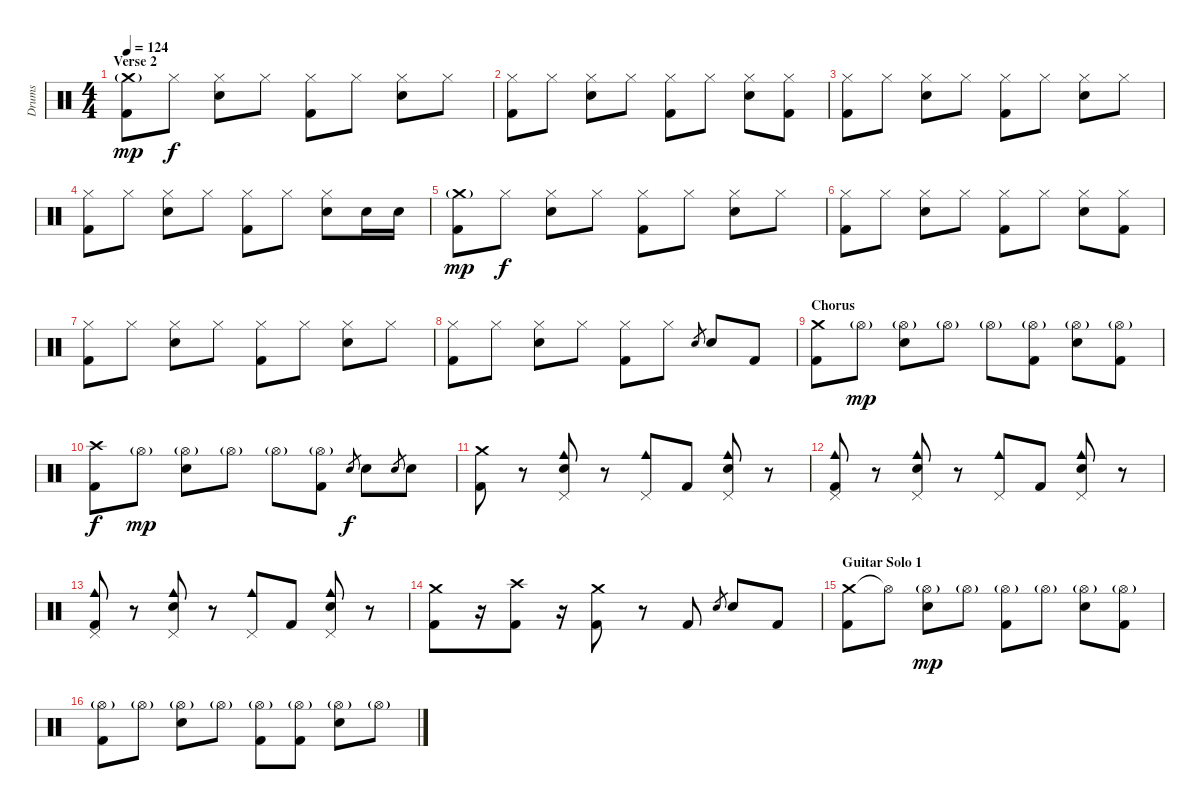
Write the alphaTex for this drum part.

\track ("Drums" "Drums") {instrument percussion}
\staff {score}
\articulation defaults
\ts (4 4)
\section ("" "Verse 2")
\tempo 124
\clef neutral
\ks c
("Crash medium (hit)"{g} "Kick (hit) 2").8{dy mp} "Hi-Hat (closed)".8{dy f} ("Hi-Hat (closed)" "Snare (hit) 2").8 "Hi-Hat (closed)".8 ("Hi-Hat (closed)" "Kick (hit) 2").8 "Hi-Hat (closed)".8 ("Hi-Hat (closed)" "Snare (hit) 2").8 "Hi-Hat (closed)".8 |
("Hi-Hat (closed)" "Kick (hit) 2").8 "Hi-Hat (closed)".8 ("Hi-Hat (closed)" "Snare (hit) 2").8 "Hi-Hat (closed)".8 ("Hi-Hat (closed)" "Kick (hit) 2").8 "Hi-Hat (closed)".8 ("Hi-Hat (closed)" "Snare (hit) 2").8 ("Hi-Hat (closed)" "Kick (hit) 2").8 |
("Hi-Hat (closed)" "Kick (hit) 2").8 "Hi-Hat (closed)".8 ("Hi-Hat (closed)" "Snare (hit) 2").8 "Hi-Hat (closed)".8 ("Hi-Hat (closed)" "Kick (hit) 2").8 "Hi-Hat (closed)".8 ("Hi-Hat (closed)" "Snare (hit) 2").8 "Hi-Hat (closed)".8 |
("Hi-Hat (closed)" "Kick (hit) 2").8 "Hi-Hat (closed)".8 ("Hi-Hat (closed)" "Snare (hit) 2").8 "Hi-Hat (closed)".8 ("Hi-Hat (closed)" "Kick (hit) 2").8 "Hi-Hat (closed)".8 ("Hi-Hat (closed)" "Snare (hit) 2").8 "Snare (hit) 2".16 "Snare (hit) 2".16 |
("Crash medium (hit)"{g} "Kick (hit) 2").8{dy mp} "Hi-Hat (closed)".8{dy f} ("Hi-Hat (closed)" "Snare (hit) 2").8 "Hi-Hat (closed)".8 ("Hi-Hat (closed)" "Kick (hit) 2").8 "Hi-Hat (closed)".8 ("Hi-Hat (closed)" "Snare (hit) 2").8 "Hi-Hat (closed)".8 |
("Hi-Hat (closed)" "Kick (hit) 2").8 "Hi-Hat (closed)".8 ("Hi-Hat (closed)" "Snare (hit) 2").8 "Hi-Hat (closed)".8 ("Hi-Hat (closed)" "Kick (hit) 2").8 "Hi-Hat (closed)".8 ("Hi-Hat (closed)" "Snare (hit) 2").8 ("Hi-Hat (closed)" "Kick (hit) 2").8 |
("Hi-Hat (closed)" "Kick (hit) 2").8 "Hi-Hat (closed)".8 ("Hi-Hat (closed)" "Snare (hit) 2").8 "Hi-Hat (closed)".8 ("Hi-Hat (closed)" "Kick (hit) 2").8 "Hi-Hat (closed)".8 ("Hi-Hat (closed)" "Snare (hit) 2").8 "Hi-Hat (closed)".8 |
("Hi-Hat (closed)" "Kick (hit) 2").8 "Hi-Hat (closed)".8 ("Hi-Hat (closed)" "Snare (hit) 2").8 "Hi-Hat (closed)".8 ("Hi-Hat (closed)" "Kick (hit) 2").8 "Hi-Hat (closed)".8 "Snare (hit) 2".8{gr} "Snare (hit) 2".8 "Kick (hit) 2".8 |
\section ("" "Chorus")
("Crash medium (hit)" "Kick (hit) 2").8 "Hi-Hat (open)"{g}.8{dy mp} ("Hi-Hat (open)"{g} "Snare (hit) 2").8 "Hi-Hat (open)"{g}.8 "Hi-Hat (open)"{g}.8 ("Hi-Hat (open)"{g} "Kick (hit) 2").8 ("Hi-Hat (open)"{g} "Snare (hit) 2").8 ("Hi-Hat (open)"{g} "Kick (hit) 2").8 |
("Crash high (hit)" "Kick (hit) 2").8{dy f} "Hi-Hat (open)"{g}.8{dy mp} ("Hi-Hat (open)"{g} "Snare (hit) 2").8 "Hi-Hat (open)"{g}.8 "Hi-Hat (open)"{g}.8 ("Hi-Hat (open)"{g} "Kick (hit) 2").8 "Snare (hit) 2".8{gr dy f} "Snare (hit) 2".8 "Snare (hit) 2".8{gr} "Snare (hit) 2".8 |
("Crash medium (hit)" "Kick (hit) 2").8 r.8 ("Cowbell medium (hit)" "Pedal Hi-Hat (hit)" "Snare (hit) 2").8 r.8 ("Cowbell medium (hit)" "Pedal Hi-Hat (hit)").8 "Kick (hit) 2".8 ("Cowbell medium (hit)" "Pedal Hi-Hat (hit)" "Snare (hit) 2").8 r.8 |
("Cowbell medium (hit)" "Pedal Hi-Hat (hit)" "Kick (hit) 2").8 r.8 ("Cowbell medium (hit)" "Pedal Hi-Hat (hit)" "Snare (hit) 2").8 r.8 ("Cowbell medium (hit)" "Pedal Hi-Hat (hit)").8 "Kick (hit) 2".8 ("Cowbell medium (hit)" "Pedal Hi-Hat (hit)" "Snare (hit) 2").8 r.8 |
("Cowbell medium (hit)" "Pedal Hi-Hat (hit)" "Kick (hit) 2").8 r.8 ("Cowbell medium (hit)" "Pedal Hi-Hat (hit)" "Snare (hit) 2").8 r.8 ("Cowbell medium (hit)" "Pedal Hi-Hat (hit)").8 "Kick (hit) 2".8 ("Cowbell medium (hit)" "Pedal Hi-Hat (hit)" "Snare (hit) 2").8 r.8 |
("Crash medium (hit)" "Kick (hit) 2").8 r.16 ("Crash high (hit)" "Kick (hit) 2").8 r.16 ("Crash medium (hit)" "Kick (hit) 2").8 r.8 "Kick (hit) 2".8 "Snare (hit) 2".8{gr} "Snare (hit) 2".8 "Kick (hit) 2".8 |
\section ("" "Guitar Solo 1")
("Crash medium (hit)" "Kick (hit) 2").8 "Hi-Hat (open)"{t}.8 ("Hi-Hat (open)"{g} "Snare (hit) 2").8{dy mp} "Hi-Hat (open)"{g}.8 ("Hi-Hat (open)"{g} "Kick (hit) 2").8 "Hi-Hat (open)"{g}.8 ("Hi-Hat (open)"{g} "Snare (hit) 2").8 ("Hi-Hat (open)"{g} "Kick (hit) 2").8 |
("Hi-Hat (open)"{g} "Kick (hit) 2").8 "Hi-Hat (open)"{g}.8 ("Hi-Hat (open)"{g} "Snare (hit) 2").8 "Hi-Hat (open)"{g}.8 ("Hi-Hat (open)"{g} "Kick (hit) 2").8 ("Hi-Hat (open)"{g} "Kick (hit) 2").8 ("Hi-Hat (open)"{g} "Snare (hit) 2").8 "Hi-Hat (open)"{g}.8
